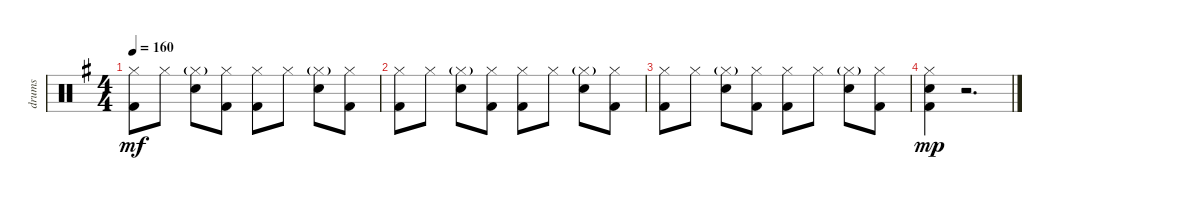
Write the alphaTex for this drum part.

\track ("drums" "drums") {instrument percussion}
\staff {score}
\articulation defaults
\ts (4 4)
\tempo 160
\clef neutral
\ks g
("Hi-Hat (closed)" "Kick (hit) 2").8{dy mf} "Hi-Hat (closed)".8 ("Hi-Hat (closed)"{g} "Snare (hit) 2").8 ("Hi-Hat (closed)" "Kick (hit) 2").8 ("Hi-Hat (closed)" "Kick (hit) 2").8 "Hi-Hat (closed)".8 ("Hi-Hat (closed)"{g} "Snare (hit) 2").8 ("Hi-Hat (closed)" "Kick (hit) 2").8 |
("Hi-Hat (closed)" "Kick (hit) 2").8 "Hi-Hat (closed)".8 ("Hi-Hat (closed)"{g} "Snare (hit) 2").8 ("Hi-Hat (closed)" "Kick (hit) 2").8 ("Hi-Hat (closed)" "Kick (hit) 2").8 "Hi-Hat (closed)".8 ("Hi-Hat (closed)"{g} "Snare (hit) 2").8 ("Hi-Hat (closed)" "Kick (hit) 2").8 |
("Hi-Hat (closed)" "Kick (hit) 2").8 "Hi-Hat (closed)".8 ("Hi-Hat (closed)"{g} "Snare (hit) 2").8 ("Hi-Hat (closed)" "Kick (hit) 2").8 ("Hi-Hat (closed)" "Kick (hit) 2").8 "Hi-Hat (closed)".8 ("Hi-Hat (closed)"{g} "Snare (hit) 2").8 ("Hi-Hat (closed)" "Kick (hit) 2").8 |
("Hi-Hat (closed)" "Snare (hit) 2" "Kick (hit) 2").4{dy mp} r.2{d}
